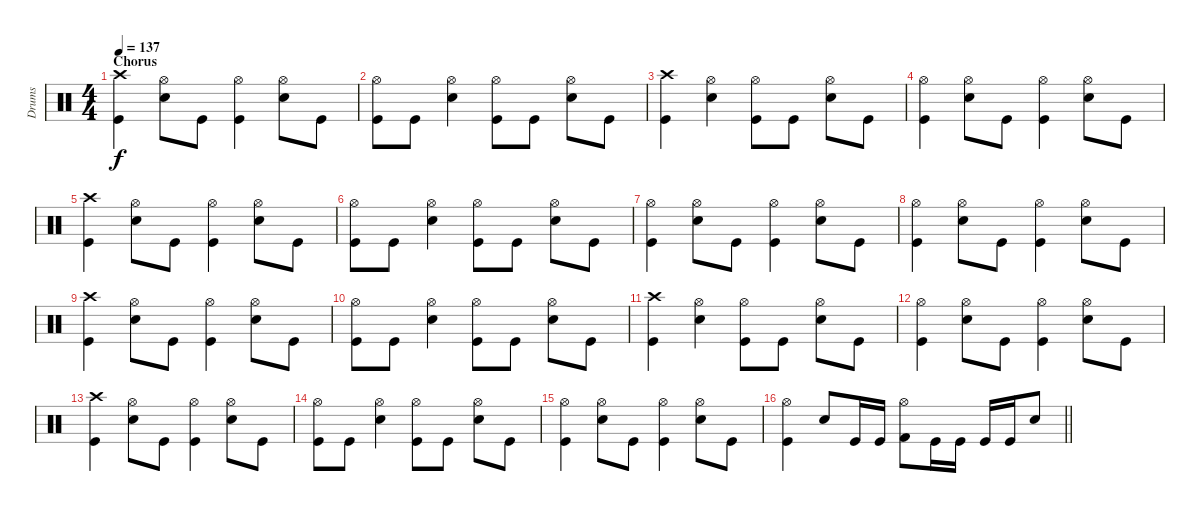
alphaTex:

\track ("Drums" "Drums") {instrument percussion}
\staff {score}
\articulation defaults
\ts (4 4)
\section ("" "Chorus")
\tempo 137
\clef neutral
\ks c
("Crash high (hit)" "Kick (hit)").4{dy f} ("Hi-Hat (open)" "Electric Snare (hit)").8 "Kick (hit)".8 ("Hi-Hat (open)" "Kick (hit)").4 ("Hi-Hat (open)" "Electric Snare (hit)").8 "Kick (hit)".8 |
("Hi-Hat (open)" "Kick (hit)").8 "Kick (hit)".8 ("Hi-Hat (open)" "Electric Snare (hit)").4 ("Hi-Hat (open)" "Kick (hit)").8 "Kick (hit)".8 ("Hi-Hat (open)" "Electric Snare (hit)").8 "Kick (hit)".8 |
("Crash high (hit)" "Kick (hit)").4 ("Hi-Hat (open)" "Electric Snare (hit)").4 ("Hi-Hat (open)" "Kick (hit)").8 "Kick (hit)".8 ("Hi-Hat (open)" "Electric Snare (hit)").8 "Kick (hit)".8 |
("Hi-Hat (open)" "Kick (hit)").4 ("Hi-Hat (open)" "Electric Snare (hit)").8 "Kick (hit)".8 ("Hi-Hat (open)" "Kick (hit)").4 ("Hi-Hat (open)" "Electric Snare (hit)").8 "Kick (hit)".8 |
("Crash high (hit)" "Kick (hit)").4 ("Hi-Hat (open)" "Electric Snare (hit)").8 "Kick (hit)".8 ("Hi-Hat (open)" "Kick (hit)").4 ("Hi-Hat (open)" "Electric Snare (hit)").8 "Kick (hit)".8 |
("Hi-Hat (open)" "Kick (hit)").8 "Kick (hit)".8 ("Hi-Hat (open)" "Electric Snare (hit)").4 ("Hi-Hat (open)" "Kick (hit)").8 "Kick (hit)".8 ("Hi-Hat (open)" "Electric Snare (hit)").8 "Kick (hit)".8 |
("Hi-Hat (open)" "Kick (hit)").4 ("Hi-Hat (open)" "Electric Snare (hit)").8 "Kick (hit)".8 ("Hi-Hat (open)" "Kick (hit)").4 ("Hi-Hat (open)" "Electric Snare (hit)").8 "Kick (hit)".8 |
("Hi-Hat (open)" "Kick (hit)").4 ("Hi-Hat (open)" "Electric Snare (hit)").8 "Kick (hit)".8 ("Hi-Hat (open)" "Kick (hit)").4 ("Hi-Hat (open)" "Electric Snare (hit)").8 "Kick (hit)".8 |
("Crash high (hit)" "Kick (hit)").4 ("Hi-Hat (open)" "Electric Snare (hit)").8 "Kick (hit)".8 ("Hi-Hat (open)" "Kick (hit)").4 ("Hi-Hat (open)" "Electric Snare (hit)").8 "Kick (hit)".8 |
("Hi-Hat (open)" "Kick (hit)").8 "Kick (hit)".8 ("Hi-Hat (open)" "Electric Snare (hit)").4 ("Hi-Hat (open)" "Kick (hit)").8 "Kick (hit)".8 ("Hi-Hat (open)" "Electric Snare (hit)").8 "Kick (hit)".8 |
("Crash high (hit)" "Kick (hit)").4 ("Hi-Hat (open)" "Electric Snare (hit)").4 ("Hi-Hat (open)" "Kick (hit)").8 "Kick (hit)".8 ("Hi-Hat (open)" "Electric Snare (hit)").8 "Kick (hit)".8 |
("Hi-Hat (open)" "Kick (hit)").4 ("Hi-Hat (open)" "Electric Snare (hit)").8 "Kick (hit)".8 ("Hi-Hat (open)" "Kick (hit)").4 ("Hi-Hat (open)" "Electric Snare (hit)").8 "Kick (hit)".8 |
("Crash high (hit)" "Kick (hit)").4 ("Hi-Hat (open)" "Electric Snare (hit)").8 "Kick (hit)".8 ("Hi-Hat (open)" "Kick (hit)").4 ("Hi-Hat (open)" "Electric Snare (hit)").8 "Kick (hit)".8 |
("Hi-Hat (open)" "Kick (hit)").8 "Kick (hit)".8 ("Hi-Hat (open)" "Electric Snare (hit)").4 ("Hi-Hat (open)" "Kick (hit)").8 "Kick (hit)".8 ("Hi-Hat (open)" "Electric Snare (hit)").8 "Kick (hit)".8 |
("Hi-Hat (open)" "Kick (hit)").4 ("Hi-Hat (open)" "Electric Snare (hit)").8 "Kick (hit)".8 ("Hi-Hat (open)" "Kick (hit)").4 ("Hi-Hat (open)" "Electric Snare (hit)").8 "Kick (hit)".8 |
\barLineRight lightlight
("Hi-Hat (open)" "Kick (hit)").4 "Electric Snare (hit)".8 "Kick (hit)".16 "Kick (hit)".16 ("Hi-Hat (open)" "Kick (hit) 2").8 "Kick (hit)".16 "Kick (hit)".16 "Kick (hit)".16 "Kick (hit)".16 "Electric Snare (hit)".8
